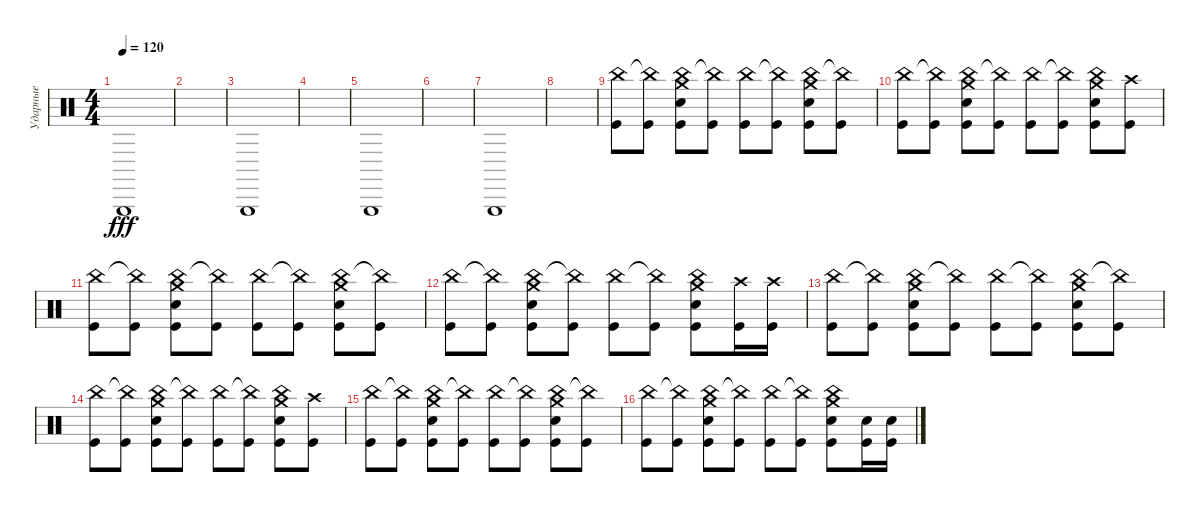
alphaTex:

\track ("Ударные" "Ударные") {instrument percussion}
\staff {score}
\articulation defaults
\ts (4 4)
\tempo 120
\clef neutral
\ks c "Triangle (hit)".1{dy fff}
|
|
"Triangle (hit)".1 |
|
"Triangle (hit)".1 |
|
"Triangle (hit)".1 |
|
("China (hit)" "Kick (hit)").8 ("China (hit)"{t} "Kick (hit)").8 ("China (hit)" "Crash medium (hit)" "Snare (hit) 2" "Kick (hit)").8 ("China (hit)"{t} "Kick (hit)").8 ("China (hit)" "Kick (hit)").8 ("China (hit)"{t} "Kick (hit)").8 ("China (hit)" "Crash medium (hit)" "Snare (hit) 2" "Kick (hit)").8 ("China (hit)"{t} "Kick (hit)").8 |
("China (hit)" "Kick (hit)").8 ("China (hit)"{t} "Kick (hit)").8 ("China (hit)" "Crash medium (hit)" "Snare (hit) 2" "Kick (hit)").8 ("China (hit)"{t} "Kick (hit)").8 ("China (hit)" "Kick (hit)").8 ("China (hit)"{t} "Kick (hit)").8 ("China (hit)" "Crash medium (hit)" "Snare (hit) 2" "Kick (hit)").8 ("Crash high (hit)" "Kick (hit)").8 |
("China (hit)" "Kick (hit)").8 ("China (hit)"{t} "Kick (hit)").8 ("China (hit)" "Crash medium (hit)" "Snare (hit) 2" "Kick (hit)").8 ("China (hit)"{t} "Kick (hit)").8 ("China (hit)" "Kick (hit)").8 ("China (hit)"{t} "Kick (hit)").8 ("China (hit)" "Crash medium (hit)" "Snare (hit) 2" "Kick (hit)").8 ("China (hit)"{t} "Kick (hit)").8 |
("China (hit)" "Kick (hit)").8 ("China (hit)"{t} "Kick (hit)").8 ("China (hit)" "Crash medium (hit)" "Snare (hit) 2" "Kick (hit)").8 ("China (hit)"{t} "Kick (hit)").8 ("China (hit)" "Kick (hit)").8 ("China (hit)"{t} "Kick (hit)").8 ("China (hit)" "Crash medium (hit)" "Snare (hit) 2" "Kick (hit)").8 ("Crash high (hit)" "Kick (hit)").16 ("Crash high (hit)" "Kick (hit)").16 |
("China (hit)" "Kick (hit)").8 ("China (hit)"{t} "Kick (hit)").8 ("China (hit)" "Crash medium (hit)" "Snare (hit) 2" "Kick (hit)").8 ("China (hit)"{t} "Kick (hit)").8 ("China (hit)" "Kick (hit)").8 ("China (hit)"{t} "Kick (hit)").8 ("China (hit)" "Crash medium (hit)" "Snare (hit) 2" "Kick (hit)").8 ("China (hit)"{t} "Kick (hit)").8 |
("China (hit)" "Kick (hit)").8 ("China (hit)"{t} "Kick (hit)").8 ("China (hit)" "Crash medium (hit)" "Snare (hit) 2" "Kick (hit)").8 ("China (hit)"{t} "Kick (hit)").8 ("China (hit)" "Kick (hit)").8 ("China (hit)"{t} "Kick (hit)").8 ("China (hit)" "Crash medium (hit)" "Snare (hit) 2" "Kick (hit)").8 ("Crash high (hit)" "Kick (hit)").8 |
("China (hit)" "Kick (hit)").8 ("China (hit)"{t} "Kick (hit)").8 ("China (hit)" "Crash medium (hit)" "Snare (hit) 2" "Kick (hit)").8 ("China (hit)"{t} "Kick (hit)").8 ("China (hit)" "Kick (hit)").8 ("China (hit)"{t} "Kick (hit)").8 ("China (hit)" "Crash medium (hit)" "Snare (hit) 2" "Kick (hit)").8 ("China (hit)"{t} "Kick (hit)").8 |
("China (hit)" "Kick (hit)").8 ("China (hit)"{t} "Kick (hit)").8 ("China (hit)" "Crash medium (hit)" "Snare (hit) 2" "Kick (hit)").8 ("China (hit)"{t} "Kick (hit)").8 ("China (hit)" "Kick (hit)").8 ("China (hit)"{t} "Kick (hit)").8 ("China (hit)" "Crash medium (hit)" "Snare (hit) 2" "Kick (hit)").8 ("Snare (hit) 2" "Kick (hit)").16 ("Snare (hit) 2" "Kick (hit)").16
